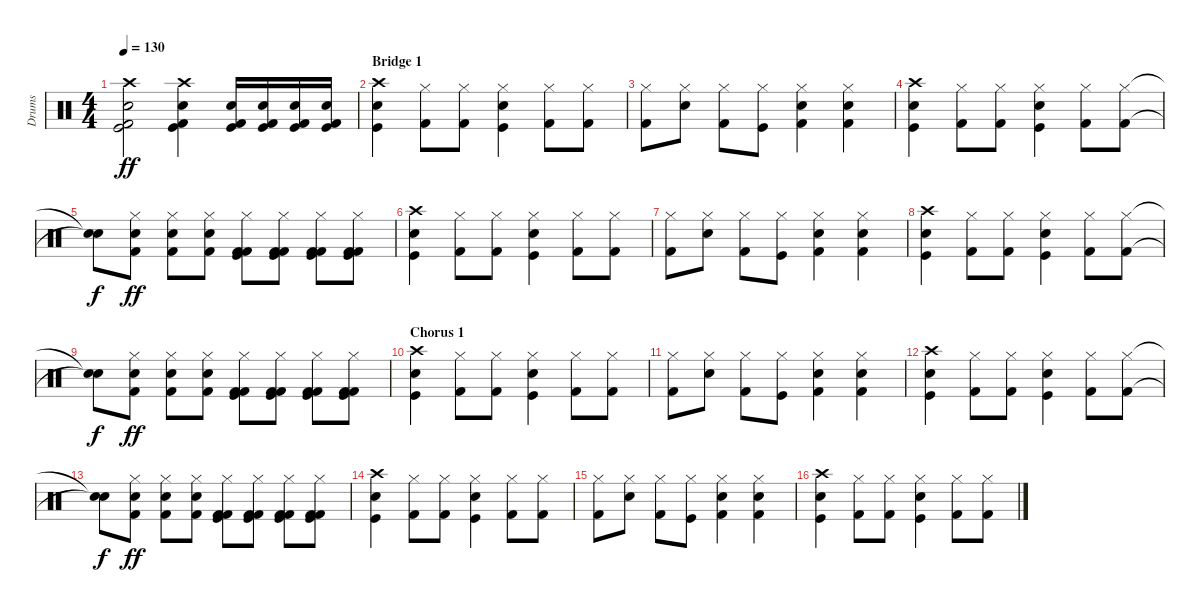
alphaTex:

\track ("Drums" "Drums") {instrument percussion}
\staff {score}
\articulation defaults
\ts (4 4)
\tempo 130
\clef neutral
\ks c
("Crash high (hit)" "Snare (hit) 2" "Kick (hit) 2" "Kick (hit)").2{dy ff} ("Crash high (hit)" "Snare (hit) 2" "Kick (hit) 2" "Kick (hit)").4 ("Kick (hit) 2" "Snare (hit) 2" "Kick (hit)").16 ("Kick (hit) 2" "Snare (hit) 2" "Kick (hit)").16 ("Kick (hit) 2" "Snare (hit) 2" "Kick (hit)").16 ("Kick (hit) 2" "Snare (hit) 2" "Kick (hit)").16 |
\section ("" "Bridge 1")
("Crash high (hit)" "Snare (hit) 2" "Kick (hit)").4 ("Hi-Hat (closed)" "Kick (hit) 2").8 ("Hi-Hat (closed)" "Kick (hit) 2").8 ("Hi-Hat (closed)" "Snare (hit) 2" "Kick (hit)").4 ("Hi-Hat (closed)" "Kick (hit) 2").8 ("Hi-Hat (closed)" "Kick (hit) 2").8 |
("Hi-Hat (closed)" "Kick (hit) 2").8 ("Hi-Hat (closed)" "Snare (hit) 2").8 ("Hi-Hat (closed)" "Kick (hit) 2").8 ("Hi-Hat (closed)" "Kick (hit)").8 ("Hi-Hat (closed)" "Kick (hit) 2" "Snare (hit) 2").4 ("Hi-Hat (closed)" "Kick (hit) 2" "Snare (hit) 2").4 |
("Crash high (hit)" "Snare (hit) 2" "Kick (hit)").4 ("Hi-Hat (closed)" "Kick (hit) 2").8 ("Hi-Hat (closed)" "Kick (hit) 2").8 ("Hi-Hat (closed)" "Snare (hit) 2" "Kick (hit)").4 ("Hi-Hat (closed)" "Kick (hit) 2").8 ("Hi-Hat (closed)" "Kick (hit) 2").8 |
("Snare (hit)"{t} "Snare (hit)"{t}).8{dy f} ("Hi-Hat (closed)" "Snare (hit) 2" "Kick (hit) 2").8{dy ff} ("Hi-Hat (closed)" "Snare (hit) 2" "Kick (hit) 2").8 ("Hi-Hat (closed)" "Snare (hit) 2" "Kick (hit) 2").8 ("Hi-Hat (closed)" "Kick (hit) 2" "Kick (hit) 2" "Kick (hit)").8 ("Hi-Hat (closed)" "Kick (hit) 2" "Kick (hit) 2" "Kick (hit)").8 ("Hi-Hat (closed)" "Kick (hit) 2" "Kick (hit) 2" "Kick (hit)").8 ("Hi-Hat (closed)" "Kick (hit) 2" "Kick (hit) 2" "Kick (hit)").8 |
("Crash high (hit)" "Snare (hit) 2" "Kick (hit)").4 ("Hi-Hat (closed)" "Kick (hit) 2").8 ("Hi-Hat (closed)" "Kick (hit) 2").8 ("Hi-Hat (closed)" "Snare (hit) 2" "Kick (hit)").4 ("Hi-Hat (closed)" "Kick (hit) 2").8 ("Hi-Hat (closed)" "Kick (hit) 2").8 |
("Hi-Hat (closed)" "Kick (hit) 2").8 ("Hi-Hat (closed)" "Snare (hit) 2").8 ("Hi-Hat (closed)" "Kick (hit) 2").8 ("Hi-Hat (closed)" "Kick (hit)").8 ("Hi-Hat (closed)" "Kick (hit) 2" "Snare (hit) 2").4 ("Hi-Hat (closed)" "Kick (hit) 2" "Snare (hit) 2").4 |
("Crash high (hit)" "Snare (hit) 2" "Kick (hit)").4 ("Hi-Hat (closed)" "Kick (hit) 2").8 ("Hi-Hat (closed)" "Kick (hit) 2").8 ("Hi-Hat (closed)" "Snare (hit) 2" "Kick (hit)").4 ("Hi-Hat (closed)" "Kick (hit) 2").8 ("Hi-Hat (closed)" "Kick (hit) 2").8 |
("Snare (hit)"{t} "Snare (hit)"{t}).8{dy f} ("Hi-Hat (closed)" "Snare (hit) 2" "Kick (hit) 2").8{dy ff} ("Hi-Hat (closed)" "Snare (hit) 2" "Kick (hit) 2").8 ("Hi-Hat (closed)" "Snare (hit) 2" "Kick (hit) 2").8 ("Hi-Hat (closed)" "Kick (hit) 2" "Kick (hit) 2" "Kick (hit)").8 ("Hi-Hat (closed)" "Kick (hit) 2" "Kick (hit) 2" "Kick (hit)").8 ("Hi-Hat (closed)" "Kick (hit) 2" "Kick (hit) 2" "Kick (hit)").8 ("Hi-Hat (closed)" "Kick (hit) 2" "Kick (hit) 2" "Kick (hit)").8 |
\section ("" "Chorus 1")
("Crash high (hit)" "Snare (hit) 2" "Kick (hit)").4 ("Hi-Hat (closed)" "Kick (hit) 2").8 ("Hi-Hat (closed)" "Kick (hit) 2").8 ("Hi-Hat (closed)" "Snare (hit) 2" "Kick (hit)").4 ("Hi-Hat (closed)" "Kick (hit) 2").8 ("Hi-Hat (closed)" "Kick (hit) 2").8 |
("Hi-Hat (closed)" "Kick (hit) 2").8 ("Hi-Hat (closed)" "Snare (hit) 2").8 ("Hi-Hat (closed)" "Kick (hit) 2").8 ("Hi-Hat (closed)" "Kick (hit)").8 ("Hi-Hat (closed)" "Kick (hit) 2" "Snare (hit) 2").4 ("Hi-Hat (closed)" "Kick (hit) 2" "Snare (hit) 2").4 |
("Crash high (hit)" "Snare (hit) 2" "Kick (hit)").4 ("Hi-Hat (closed)" "Kick (hit) 2").8 ("Hi-Hat (closed)" "Kick (hit) 2").8 ("Hi-Hat (closed)" "Snare (hit) 2" "Kick (hit)").4 ("Hi-Hat (closed)" "Kick (hit) 2").8 ("Hi-Hat (closed)" "Kick (hit) 2").8 |
("Snare (hit)"{t} "Snare (hit)"{t}).8{dy f} ("Hi-Hat (closed)" "Snare (hit) 2" "Kick (hit) 2").8{dy ff} ("Hi-Hat (closed)" "Snare (hit) 2" "Kick (hit) 2").8 ("Hi-Hat (closed)" "Snare (hit) 2" "Kick (hit) 2").8 ("Hi-Hat (closed)" "Kick (hit) 2" "Kick (hit) 2" "Kick (hit)").8 ("Hi-Hat (closed)" "Kick (hit) 2" "Kick (hit) 2" "Kick (hit)").8 ("Hi-Hat (closed)" "Kick (hit) 2" "Kick (hit) 2" "Kick (hit)").8 ("Hi-Hat (closed)" "Kick (hit) 2" "Kick (hit) 2" "Kick (hit)").8 |
("Crash high (hit)" "Snare (hit) 2" "Kick (hit)").4 ("Hi-Hat (closed)" "Kick (hit) 2").8 ("Hi-Hat (closed)" "Kick (hit) 2").8 ("Hi-Hat (closed)" "Snare (hit) 2" "Kick (hit)").4 ("Hi-Hat (closed)" "Kick (hit) 2").8 ("Hi-Hat (closed)" "Kick (hit) 2").8 |
("Hi-Hat (closed)" "Kick (hit) 2").8 ("Hi-Hat (closed)" "Snare (hit) 2").8 ("Hi-Hat (closed)" "Kick (hit) 2").8 ("Hi-Hat (closed)" "Kick (hit)").8 ("Hi-Hat (closed)" "Kick (hit) 2" "Snare (hit) 2").4 ("Hi-Hat (closed)" "Kick (hit) 2" "Snare (hit) 2").4 |
("Crash high (hit)" "Snare (hit) 2" "Kick (hit)").4 ("Hi-Hat (closed)" "Kick (hit) 2").8 ("Hi-Hat (closed)" "Kick (hit) 2").8 ("Hi-Hat (closed)" "Snare (hit) 2" "Kick (hit)").4 ("Hi-Hat (closed)" "Kick (hit) 2").8 ("Hi-Hat (closed)" "Kick (hit) 2").8
